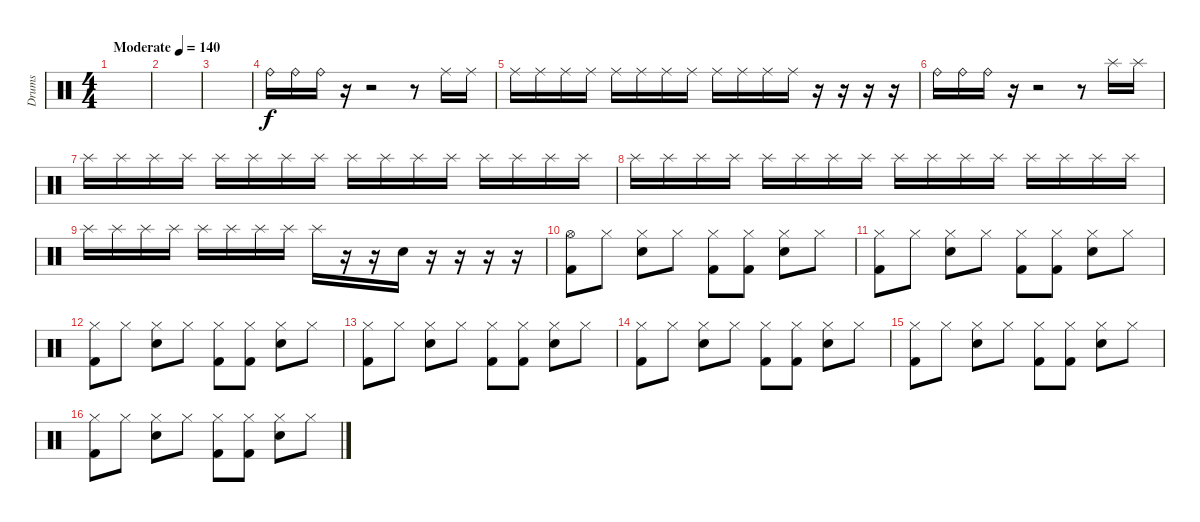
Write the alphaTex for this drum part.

\track ("Drums" "Drums") {instrument percussion}
\staff {score}
\articulation defaults
\ts (4 4)
\tempo (140 "Moderate")
\clef neutral
\ks c
|
|
|
"Ride (bell)".16 "Ride (bell)".16 "Ride (bell)".16 r.16 r.2 r.8 "Ride (middle)".16 "Ride (middle)".16 |
"Ride (middle)".16 "Ride (middle)".16 "Ride (middle)".16 "Ride (middle)".16 "Ride (middle)".16 "Ride (middle)".16 "Ride (middle)".16 "Ride (middle)".16 "Ride (middle)".16 "Ride (middle)".16 "Ride (middle)".16 "Ride (middle)".16 r.16 r.16 r.16 r.16 |
"Ride (bell)".16 "Ride (bell)".16 "Ride (bell)".16 r.16 r.2 r.8 "Splash (hit)".16 "Splash (hit)".16 |
"Splash (hit)".16 "Splash (hit)".16 "Splash (hit)".16 "Splash (hit)".16 "Splash (hit)".16 "Splash (hit)".16 "Splash (hit)".16 "Splash (hit)".16 "Splash (hit)".16 "Splash (hit)".16 "Splash (hit)".16 "Splash (hit)".16 "Splash (hit)".16 "Splash (hit)".16 "Splash (hit)".16 "Splash (hit)".16 |
"Splash (hit)".16 "Splash (hit)".16 "Splash (hit)".16 "Splash (hit)".16 "Splash (hit)".16 "Splash (hit)".16 "Splash (hit)".16 "Splash (hit)".16 "Splash (hit)".16 "Splash (hit)".16 "Splash (hit)".16 "Splash (hit)".16 "Splash (hit)".16 "Splash (hit)".16 "Splash (hit)".16 "Splash (hit)".16 |
"Splash (hit)".16 "Splash (hit)".16 "Splash (hit)".16 "Splash (hit)".16 "Splash (hit)".16 "Splash (hit)".16 "Splash (hit)".16 "Splash (hit)".16 "Splash (hit)".16 r.16 r.16 "Electric Snare (hit)".16 r.16 r.16 r.16 r.16 |
("Hi-Hat (open)" "Kick (hit) 2").8 "Hi-Hat (closed)".8 ("Hi-Hat (closed)" "Electric Snare (hit)").8 "Hi-Hat (closed)".8 ("Hi-Hat (closed)" "Kick (hit) 2").8 ("Hi-Hat (closed)" "Kick (hit) 2").8 ("Hi-Hat (closed)" "Electric Snare (hit)").8 "Hi-Hat (closed)".8 |
("Hi-Hat (closed)" "Kick (hit) 2").8 "Hi-Hat (closed)".8 ("Hi-Hat (closed)" "Electric Snare (hit)").8 "Hi-Hat (closed)".8 ("Hi-Hat (closed)" "Kick (hit) 2").8 ("Hi-Hat (closed)" "Kick (hit) 2").8 ("Hi-Hat (closed)" "Electric Snare (hit)").8 "Hi-Hat (closed)".8 |
("Hi-Hat (closed)" "Kick (hit) 2").8 "Hi-Hat (closed)".8 ("Hi-Hat (closed)" "Electric Snare (hit)").8 "Hi-Hat (closed)".8 ("Hi-Hat (closed)" "Kick (hit) 2").8 ("Hi-Hat (closed)" "Kick (hit) 2").8 ("Hi-Hat (closed)" "Electric Snare (hit)").8 "Hi-Hat (closed)".8 |
("Hi-Hat (closed)" "Kick (hit) 2").8 "Hi-Hat (closed)".8 ("Hi-Hat (closed)" "Electric Snare (hit)").8 "Hi-Hat (closed)".8 ("Hi-Hat (closed)" "Kick (hit) 2").8 ("Hi-Hat (closed)" "Kick (hit) 2").8 ("Hi-Hat (closed)" "Electric Snare (hit)").8 "Hi-Hat (closed)".8 |
("Hi-Hat (closed)" "Kick (hit) 2").8 "Hi-Hat (closed)".8 ("Hi-Hat (closed)" "Electric Snare (hit)").8 "Hi-Hat (closed)".8 ("Hi-Hat (closed)" "Kick (hit) 2").8 ("Hi-Hat (closed)" "Kick (hit) 2").8 ("Hi-Hat (closed)" "Electric Snare (hit)").8 "Hi-Hat (closed)".8 |
("Hi-Hat (closed)" "Kick (hit) 2").8 "Hi-Hat (closed)".8 ("Hi-Hat (closed)" "Electric Snare (hit)").8 "Hi-Hat (closed)".8 ("Hi-Hat (closed)" "Kick (hit) 2").8 ("Hi-Hat (closed)" "Kick (hit) 2").8 ("Hi-Hat (closed)" "Electric Snare (hit)").8 "Hi-Hat (closed)".8 |
("Hi-Hat (closed)" "Kick (hit) 2").8 "Hi-Hat (closed)".8 ("Hi-Hat (closed)" "Electric Snare (hit)").8 "Hi-Hat (closed)".8 ("Hi-Hat (closed)" "Kick (hit) 2").8 ("Hi-Hat (closed)" "Kick (hit) 2").8 ("Hi-Hat (closed)" "Electric Snare (hit)").8 "Hi-Hat (closed)".8
